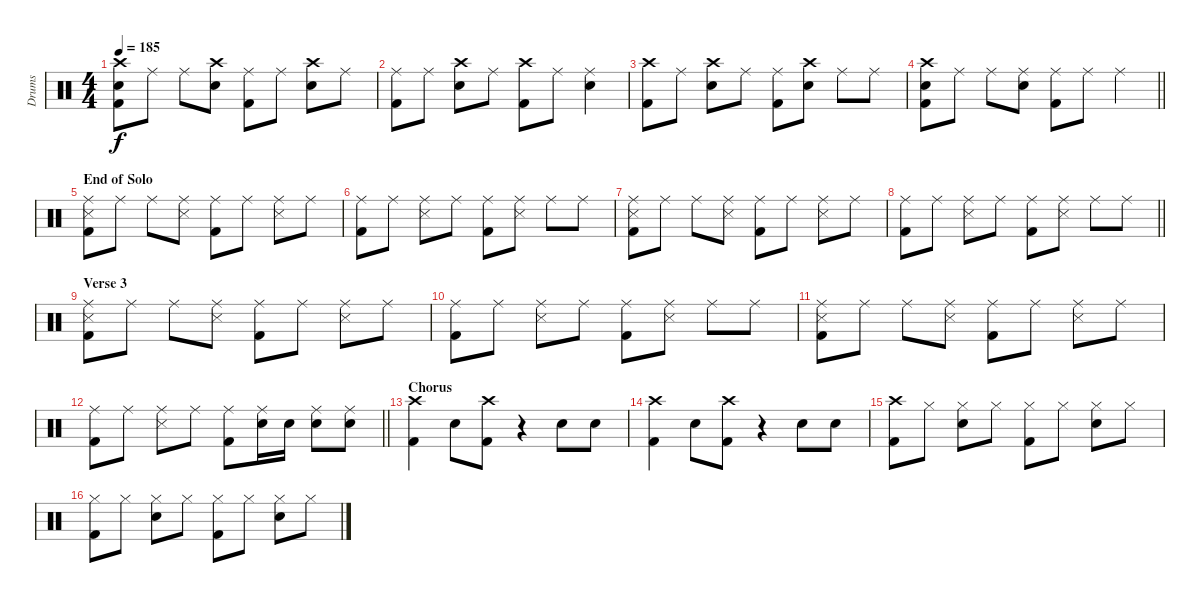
\track ("Drums" "Drums") {instrument percussion}
\staff {score}
\articulation defaults
\ts (4 4)
\tempo 185
\clef neutral
\ks c
("Crash high (hit)" "Snare (hit) 2" "Kick (hit) 2").8{dy f} "Ride (middle)".8 "Ride (middle)".8 ("Crash high (hit)" "Snare (hit) 2").8 ("Ride (middle)" "Kick (hit) 2").8 "Ride (middle)".8 ("Crash high (hit)" "Snare (hit) 2").8 "Ride (middle)".8 |
("Ride (middle)" "Kick (hit) 2").8 "Ride (middle)".8 ("Crash high (hit)" "Snare (hit) 2").8 "Ride (middle)".8 ("Crash high (hit)" "Kick (hit) 2").8 "Ride (middle)".8 ("Ride (middle)" "Snare (hit) 2").4 |
("Crash high (hit)" "Kick (hit) 2").8 "Ride (middle)".8 ("Crash high (hit)" "Snare (hit) 2").8 "Ride (middle)".8 ("Ride (middle)" "Kick (hit) 2").8 ("Crash high (hit)" "Snare (hit) 2").8 "Ride (middle)".8 "Ride (middle)".8 |
\barLineRight lightlight
("Crash high (hit)" "Snare (hit) 2" "Kick (hit) 2").8 "Ride (middle)".8 "Ride (middle)".8 ("Ride (middle)" "Snare (hit) 2").8 ("Ride (middle)" "Kick (hit) 2").8 "Ride (middle)".8 "Ride (middle)".4 |
\section ("" "End of Solo")
("Ride (middle)" "Snare (side stick) 3" "Kick (hit) 2").8 "Ride (middle)".8 "Ride (middle)".8 ("Ride (middle)" "Snare (side stick) 3").8 ("Ride (middle)" "Kick (hit) 2").8 "Ride (middle)".8 ("Ride (middle)" "Snare (side stick) 3").8 "Ride (middle)".8 |
("Ride (middle)" "Kick (hit) 2").8 "Ride (middle)".8 ("Ride (middle)" "Snare (side stick) 3").8 "Ride (middle)".8 ("Ride (middle)" "Kick (hit) 2").8 ("Ride (middle)" "Snare (side stick) 3").8 "Ride (middle)".8 "Ride (middle)".8 |
("Ride (middle)" "Snare (side stick) 3" "Kick (hit) 2").8 "Ride (middle)".8 "Ride (middle)".8 ("Ride (middle)" "Snare (side stick) 3").8 ("Ride (middle)" "Kick (hit) 2").8 "Ride (middle)".8 ("Ride (middle)" "Snare (side stick) 3").8 "Ride (middle)".8 |
\barLineRight lightlight
("Ride (middle)" "Kick (hit) 2").8 "Ride (middle)".8 ("Ride (middle)" "Snare (side stick) 3").8 "Ride (middle)".8 ("Ride (middle)" "Kick (hit) 2").8 ("Ride (middle)" "Snare (side stick) 3").8 "Ride (middle)".8 "Ride (middle)".8 |
\section ("" "Verse 3")
("Ride (middle)" "Snare (side stick) 3" "Kick (hit) 2").8 "Ride (middle)".8 "Ride (middle)".8 ("Ride (middle)" "Snare (side stick) 3").8 ("Ride (middle)" "Kick (hit) 2").8 "Ride (middle)".8 ("Ride (middle)" "Snare (side stick) 3").8 "Ride (middle)".8 |
("Ride (middle)" "Kick (hit) 2").8 "Ride (middle)".8 ("Ride (middle)" "Snare (side stick) 3").8 "Ride (middle)".8 ("Ride (middle)" "Kick (hit) 2").8 ("Ride (middle)" "Snare (side stick) 3").8 "Ride (middle)".8 "Ride (middle)".8 |
("Ride (middle)" "Snare (side stick) 3" "Kick (hit) 2").8 "Ride (middle)".8 "Ride (middle)".8 ("Ride (middle)" "Snare (side stick) 3").8 ("Ride (middle)" "Kick (hit) 2").8 "Ride (middle)".8 ("Ride (middle)" "Snare (side stick) 3").8 "Ride (middle)".8 |
\barLineRight lightlight
("Ride (middle)" "Kick (hit) 2").8 "Ride (middle)".8 ("Ride (middle)" "Snare (side stick) 3").8 "Ride (middle)".8 ("Ride (middle)" "Kick (hit) 2").8 ("Ride (middle)" "Snare (hit) 2").16 "Snare (hit) 2".16 ("Ride (middle)" "Snare (hit) 2").8 ("Ride (middle)" "Snare (hit) 2").8 |
\section ("" "Chorus")
("Crash high (hit)" "Kick (hit) 2").4 "Snare (hit) 2".8 ("Crash high (hit)" "Kick (hit) 2").8 r.4 "Snare (hit) 2".8 "Snare (hit) 2".8 |
("Crash high (hit)" "Kick (hit) 2").4 "Snare (hit) 2".8 ("Crash high (hit)" "Kick (hit) 2").8 r.4 "Snare (hit) 2".8 "Snare (hit) 2".8 |
("Crash high (hit)" "Kick (hit) 2").8 "Hi-Hat (closed)".8 ("Hi-Hat (closed)" "Snare (hit) 2").8 "Hi-Hat (closed)".8 ("Hi-Hat (closed)" "Kick (hit) 2").8 "Hi-Hat (closed)".8 ("Hi-Hat (closed)" "Snare (hit) 2").8 "Hi-Hat (closed)".8 |
("Hi-Hat (closed)" "Kick (hit) 2").8 "Hi-Hat (closed)".8 ("Hi-Hat (closed)" "Snare (hit) 2").8 "Hi-Hat (closed)".8 ("Hi-Hat (closed)" "Kick (hit) 2").8 "Hi-Hat (closed)".8 ("Hi-Hat (closed)" "Snare (hit) 2").8 "Hi-Hat (closed)".8
